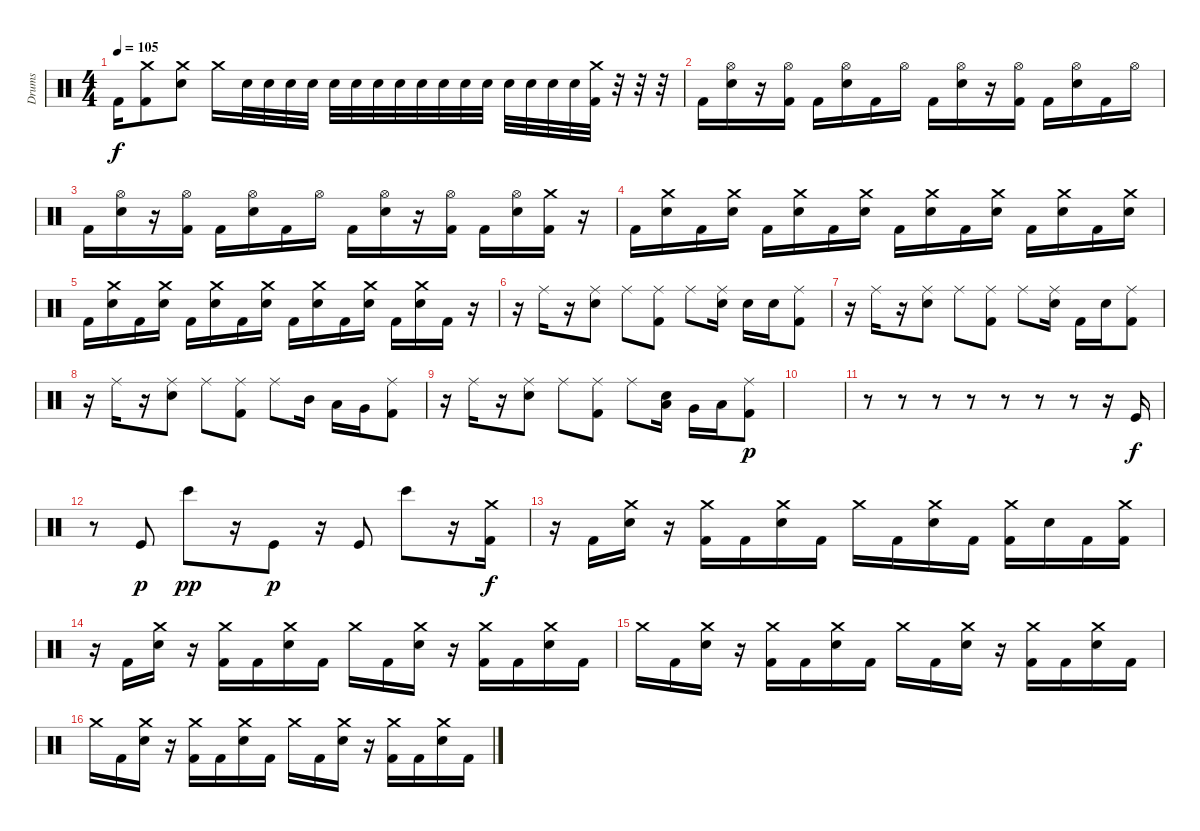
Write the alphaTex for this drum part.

\track ("Drums" "Drums") {instrument percussion}
\staff {score}
\articulation defaults
\ts (4 4)
\tempo 105
\clef neutral
\ks c "Kick (hit) 2".16{dy f}
("Crash medium (hit)" "Kick (hit) 2").8 ("Crash medium (hit)" "Electric Snare (hit)").8 "Crash medium (hit)".16 "Electric Snare (hit)".32 "Electric Snare (hit)".32 "Electric Snare (hit)".32 "Electric Snare (hit)".32 "Electric Snare (hit)".32 "Electric Snare (hit)".32 "Electric Snare (hit)".32 "Electric Snare (hit)".32 "Electric Snare (hit)".32 "Electric Snare (hit)".32 "Electric Snare (hit)".32 "Electric Snare (hit)".32 "Electric Snare (hit)".32 "Electric Snare (hit)".32 "Electric Snare (hit)".32 "Electric Snare (hit)".32 ("Crash medium (hit)" "Kick (hit) 2").32 r.32 r.32 r.32 |
"Kick (hit) 2".16 ("Hi-Hat (open)" "Electric Snare (hit)").16 r.16 ("Hi-Hat (open)" "Kick (hit) 2").16 "Kick (hit) 2".16 ("Hi-Hat (open)" "Electric Snare (hit)").16 "Kick (hit) 2".16 "Hi-Hat (open)".16 "Kick (hit) 2".16 ("Hi-Hat (open)" "Electric Snare (hit)").16 r.16 ("Hi-Hat (open)" "Kick (hit) 2").16 "Kick (hit) 2".16 ("Hi-Hat (open)" "Electric Snare (hit)").16 "Kick (hit) 2".16 "Hi-Hat (open)".16 |
"Kick (hit) 2".16 ("Hi-Hat (open)" "Electric Snare (hit)").16 r.16 ("Hi-Hat (open)" "Kick (hit) 2").16 "Kick (hit) 2".16 ("Hi-Hat (open)" "Electric Snare (hit)").16 "Kick (hit) 2".16 "Hi-Hat (open)".16 "Kick (hit) 2".16 ("Hi-Hat (open)" "Electric Snare (hit)").16 r.16 ("Hi-Hat (open)" "Kick (hit) 2").16 "Kick (hit) 2".16 ("Hi-Hat (open)" "Electric Snare (hit)").16 ("Crash medium (hit)" "Kick (hit) 2").16 r.16 |
"Kick (hit) 2".16 ("Crash medium (hit)" "Electric Snare (hit)").16 "Kick (hit) 2".16 ("Crash medium (hit)" "Electric Snare (hit)").16 "Kick (hit) 2".16 ("Crash medium (hit)" "Electric Snare (hit)").16 "Kick (hit) 2".16 ("Crash medium (hit)" "Electric Snare (hit)").16 "Kick (hit) 2".16 ("Crash medium (hit)" "Electric Snare (hit)").16 "Kick (hit) 2".16 ("Crash medium (hit)" "Electric Snare (hit)").16 "Kick (hit) 2".16 ("Crash medium (hit)" "Electric Snare (hit)").16 "Kick (hit) 2".16 ("Crash medium (hit)" "Electric Snare (hit)").16 |
"Kick (hit) 2".16 ("Crash medium (hit)" "Electric Snare (hit)").16 "Kick (hit) 2".16 ("Crash medium (hit)" "Electric Snare (hit)").16 "Kick (hit) 2".16 ("Crash medium (hit)" "Electric Snare (hit)").16 "Kick (hit) 2".16 ("Crash medium (hit)" "Electric Snare (hit)").16 "Kick (hit) 2".16 ("Crash medium (hit)" "Electric Snare (hit)").16 "Kick (hit) 2".16 ("Crash medium (hit)" "Electric Snare (hit)").16 "Kick (hit) 2".16 ("Crash medium (hit)" "Electric Snare (hit)").16 "Kick (hit) 2".16 r.16 |
r.16 "Ride (middle)".16 r.16 ("Ride (middle)" "Electric Snare (hit)").8 "Ride (middle)".8 ("Ride (middle)" "Kick (hit) 2").8 "Ride (middle)".8 ("Ride (middle)" "Electric Snare (hit)").16 "Electric Snare (hit)".16 "Electric Snare (hit)".16 ("Ride (middle)" "Kick (hit) 2").8 |
r.16 "Ride (middle)".16 r.16 ("Ride (middle)" "Electric Snare (hit)").8 "Ride (middle)".8 ("Ride (middle)" "Kick (hit) 2").8 "Ride (middle)".8 ("Ride (middle)" "Electric Snare (hit)").16 "Kick (hit) 2".16 "Electric Snare (hit)".16 ("Ride (middle)" "Kick (hit) 2").8 |
r.16 "Ride (middle)".16 r.16 ("Ride (middle)" "Electric Snare (hit)").8 "Ride (middle)".8 ("Ride (middle)" "Kick (hit) 2").8 "Ride (middle)".8 "Mid Tom (hit)".16 "Low Tom (hit)".16 "Very Low Tom (hit)".16 ("Ride (middle)" "Kick (hit) 2").8 |
r.16 "Ride (middle)".16 r.16 ("Ride (middle)" "Electric Snare (hit)").8 "Ride (middle)".8 ("Ride (middle)" "Kick (hit) 2").8 "Ride (middle)".8 ("Electric Snare (hit)" "Low Tom (hit)").16 "Very Low Tom (hit)".16 "Low Floor Tom (hit)".16 ("Ride (middle)" "Kick (hit) 2").8{dy p} |
|
r.8 r.8 r.8 r.8 r.8 r.8 r.8 r.16 "Kick (hit)".16{dy f} |
r.8 "Kick (hit)".8{dy p} "Bongo High (hit)".8{dy pp} r.16 "Kick (hit)".8{dy p} r.16 "Kick (hit)".8 "Bongo High (hit)".8 r.16 ("Crash medium (hit)" "Kick (hit) 2").16{dy f} |
r.16 "Kick (hit) 2".16 ("Crash medium (hit)" "Electric Snare (hit)").16 r.16 ("Crash medium (hit)" "Kick (hit) 2").16 "Kick (hit) 2".16 ("Crash medium (hit)" "Electric Snare (hit)").16 "Kick (hit) 2".16 "Crash medium (hit)".16 "Kick (hit) 2".16 ("Crash medium (hit)" "Electric Snare (hit)").16 "Kick (hit) 2".16 ("Crash medium (hit)" "Kick (hit) 2").16 "Electric Snare (hit)".16 "Kick (hit) 2".16 ("Crash medium (hit)" "Kick (hit) 2").16 |
r.16 "Kick (hit) 2".16 ("Crash medium (hit)" "Electric Snare (hit)").16 r.16 ("Crash medium (hit)" "Kick (hit) 2").16 "Kick (hit) 2".16 ("Crash medium (hit)" "Electric Snare (hit)").16 "Kick (hit) 2".16 "Crash medium (hit)".16 "Kick (hit) 2".16 ("Crash medium (hit)" "Electric Snare (hit)").16 r.16 ("Crash medium (hit)" "Kick (hit) 2").16 "Kick (hit) 2".16 ("Crash medium (hit)" "Electric Snare (hit)").16 "Kick (hit) 2".16 |
"Crash medium (hit)".16 "Kick (hit) 2".16 ("Crash medium (hit)" "Electric Snare (hit)").16 r.16 ("Crash medium (hit)" "Kick (hit) 2").16 "Kick (hit) 2".16 ("Crash medium (hit)" "Electric Snare (hit)").16 "Kick (hit) 2".16 "Crash medium (hit)".16 "Kick (hit) 2".16 ("Crash medium (hit)" "Electric Snare (hit)").16 r.16 ("Crash medium (hit)" "Kick (hit) 2").16 "Kick (hit) 2".16 ("Crash medium (hit)" "Electric Snare (hit)").16 "Kick (hit) 2".16 |
"Crash medium (hit)".16 "Kick (hit) 2".16 ("Crash medium (hit)" "Electric Snare (hit)").16 r.16 ("Crash medium (hit)" "Kick (hit) 2").16 "Kick (hit) 2".16 ("Crash medium (hit)" "Electric Snare (hit)").16 "Kick (hit) 2".16 "Crash medium (hit)".16 "Kick (hit) 2".16 ("Crash medium (hit)" "Electric Snare (hit)").16 r.16 ("Crash medium (hit)" "Kick (hit) 2").16 "Kick (hit) 2".16 ("Crash medium (hit)" "Electric Snare (hit)").16 "Kick (hit) 2".16
